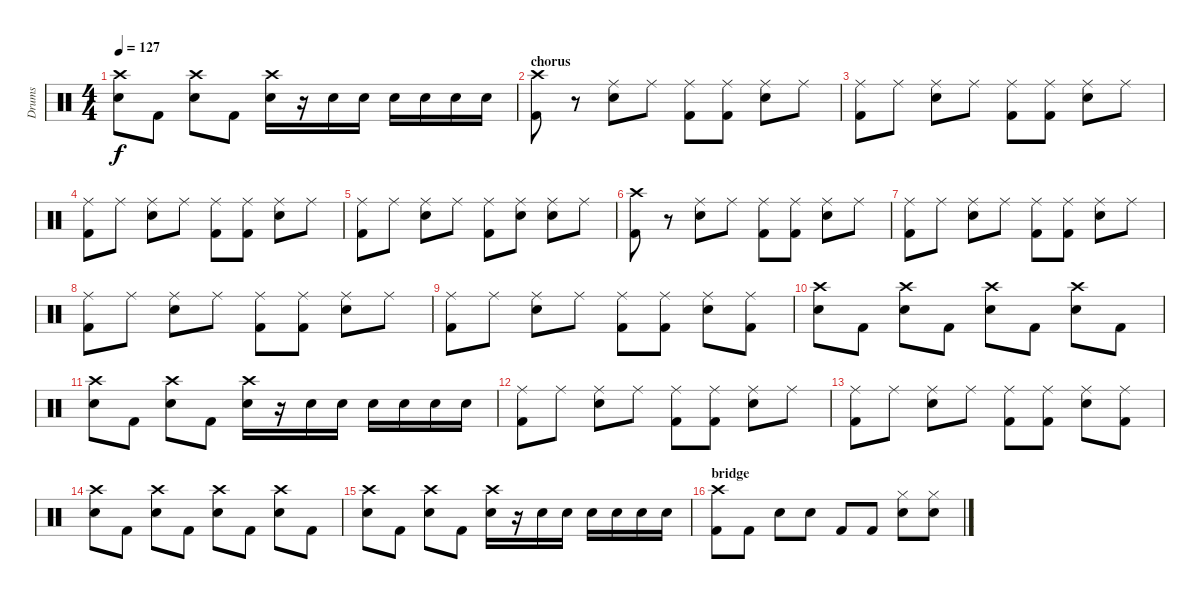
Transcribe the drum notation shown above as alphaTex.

\track ("Drums" "Drums") {instrument percussion}
\staff {score}
\articulation defaults
\ts (4 4)
\tempo 127
\clef neutral
\ks c
("Crash high (hit)" "Snare (hit) 2").8{dy f} "Kick (hit) 2".8 ("Crash high (hit)" "Snare (hit) 2").8 "Kick (hit) 2".8 ("Crash high (hit)" "Snare (hit) 2").16 r.16 "Snare (hit) 2".16 "Snare (hit) 2".16 "Snare (hit) 2".16 "Snare (hit) 2".16 "Snare (hit) 2".16 "Snare (hit) 2".16 |
\section ("" "chorus")
("Crash high (hit)" "Kick (hit) 2").8 r.8 ("Ride (middle)" "Snare (hit) 2").8 "Ride (middle)".8 ("Ride (middle)" "Kick (hit) 2").8 ("Ride (middle)" "Kick (hit) 2").8 ("Ride (middle)" "Snare (hit) 2").8 "Ride (middle)".8 |
("Ride (middle)" "Kick (hit) 2").8 "Ride (middle)".8 ("Ride (middle)" "Snare (hit) 2").8 "Ride (middle)".8 ("Ride (middle)" "Kick (hit) 2").8 ("Ride (middle)" "Kick (hit) 2").8 ("Ride (middle)" "Snare (hit) 2").8 "Ride (middle)".8 |
("Ride (middle)" "Kick (hit) 2").8 "Ride (middle)".8 ("Ride (middle)" "Snare (hit) 2").8 "Ride (middle)".8 ("Ride (middle)" "Kick (hit) 2").8 ("Ride (middle)" "Kick (hit) 2").8 ("Ride (middle)" "Snare (hit) 2").8 "Ride (middle)".8 |
("Ride (middle)" "Kick (hit) 2").8 "Ride (middle)".8 ("Ride (middle)" "Snare (hit) 2").8 "Ride (middle)".8 ("Ride (middle)" "Kick (hit) 2").8 ("Ride (middle)" "Snare (hit) 2").8 ("Ride (middle)" "Snare (hit) 2").8 "Ride (middle)".8 |
("Crash high (hit)" "Kick (hit) 2").8 r.8 ("Ride (middle)" "Snare (hit) 2").8 "Ride (middle)".8 ("Ride (middle)" "Kick (hit) 2").8 ("Ride (middle)" "Kick (hit) 2").8 ("Ride (middle)" "Snare (hit) 2").8 "Ride (middle)".8 |
("Ride (middle)" "Kick (hit) 2").8 "Ride (middle)".8 ("Ride (middle)" "Snare (hit) 2").8 "Ride (middle)".8 ("Ride (middle)" "Kick (hit) 2").8 ("Ride (middle)" "Kick (hit) 2").8 ("Ride (middle)" "Snare (hit) 2").8 "Ride (middle)".8 |
("Ride (middle)" "Kick (hit) 2").8 "Ride (middle)".8 ("Ride (middle)" "Snare (hit) 2").8 "Ride (middle)".8 ("Ride (middle)" "Kick (hit) 2").8 ("Ride (middle)" "Kick (hit) 2").8 ("Ride (middle)" "Snare (hit) 2").8 "Ride (middle)".8 |
("Ride (middle)" "Kick (hit) 2").8 "Ride (middle)".8 ("Ride (middle)" "Snare (hit) 2").8 "Ride (middle)".8 ("Ride (middle)" "Kick (hit) 2").8 ("Ride (middle)" "Kick (hit) 2").8 ("Ride (middle)" "Snare (hit) 2").8 ("Ride (middle)" "Kick (hit) 2").8 |
("Crash high (hit)" "Snare (hit) 2").8 "Kick (hit) 2".8 ("Crash high (hit)" "Snare (hit) 2").8 "Kick (hit) 2".8 ("Crash high (hit)" "Snare (hit) 2").8 "Kick (hit) 2".8 ("Crash high (hit)" "Snare (hit) 2").8 "Kick (hit) 2".8 |
("Crash high (hit)" "Snare (hit) 2").8 "Kick (hit) 2".8 ("Crash high (hit)" "Snare (hit) 2").8 "Kick (hit) 2".8 ("Crash high (hit)" "Snare (hit) 2").16 r.16 "Snare (hit) 2".16 "Snare (hit) 2".16 "Snare (hit) 2".16 "Snare (hit) 2".16 "Snare (hit) 2".16 "Snare (hit) 2".16 |
("Ride (middle)" "Kick (hit) 2").8 "Ride (middle)".8 ("Ride (middle)" "Snare (hit) 2").8 "Ride (middle)".8 ("Ride (middle)" "Kick (hit) 2").8 ("Ride (middle)" "Kick (hit) 2").8 ("Ride (middle)" "Snare (hit) 2").8 "Ride (middle)".8 |
("Ride (middle)" "Kick (hit) 2").8 "Ride (middle)".8 ("Ride (middle)" "Snare (hit) 2").8 "Ride (middle)".8 ("Ride (middle)" "Kick (hit) 2").8 ("Ride (middle)" "Kick (hit) 2").8 ("Ride (middle)" "Snare (hit) 2").8 ("Ride (middle)" "Kick (hit) 2").8 |
("Crash high (hit)" "Snare (hit) 2").8 "Kick (hit) 2".8 ("Crash high (hit)" "Snare (hit) 2").8 "Kick (hit) 2".8 ("Crash high (hit)" "Snare (hit) 2").8 "Kick (hit) 2".8 ("Crash high (hit)" "Snare (hit) 2").8 "Kick (hit) 2".8 |
("Crash high (hit)" "Snare (hit) 2").8 "Kick (hit) 2".8 ("Crash high (hit)" "Snare (hit) 2").8 "Kick (hit) 2".8 ("Crash high (hit)" "Snare (hit) 2").16 r.16 "Snare (hit) 2".16 "Snare (hit) 2".16 "Snare (hit) 2".16 "Snare (hit) 2".16 "Snare (hit) 2".16 "Snare (hit) 2".16 |
\section ("" "bridge")
("Crash high (hit)" "Kick (hit) 2").8 "Kick (hit) 2".8 "Snare (hit) 2".8 "Snare (hit) 2".8 "Kick (hit) 2".8 "Kick (hit) 2".8 ("Hi-Hat (closed)" "Snare (hit) 2").8 ("Hi-Hat (closed)" "Snare (hit) 2").8
